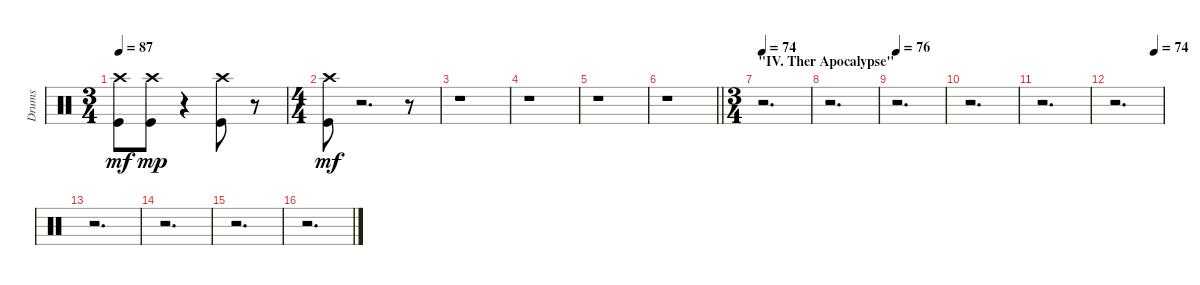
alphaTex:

\track ("Drums" "Drums") {instrument percussion}
\staff {score}
\articulation defaults
\ts (3 4)
\tempo 87
\clef neutral
\ks c
("Kick (hit)" "Crash high (hit)").8{dy mf} ("Kick (hit)" "Crash high (hit)").8{dy mp} r.4 ("Kick (hit)" "Crash high (hit)").8 r.8 |
\ts (4 4)
("Kick (hit)" "Crash high (hit)").8{dy mf} r.2{d} r.8 |
r.1 |
r.1 |
r.1 |
\barLineRight lightlight
r.1 |
\ts (3 4)
\section ("" "\"IV. Ther Apocalypse\"")
\tempo 74
r.2{d} |
r.2{d} |
\tempo 76
r.2{d} |
r.2{d} |
r.2{d} |
\tempo (74 0.8333333333333334)
r.2{d} |
r.2{d} |
r.2{d} |
r.2{d} |
r.2{d}
